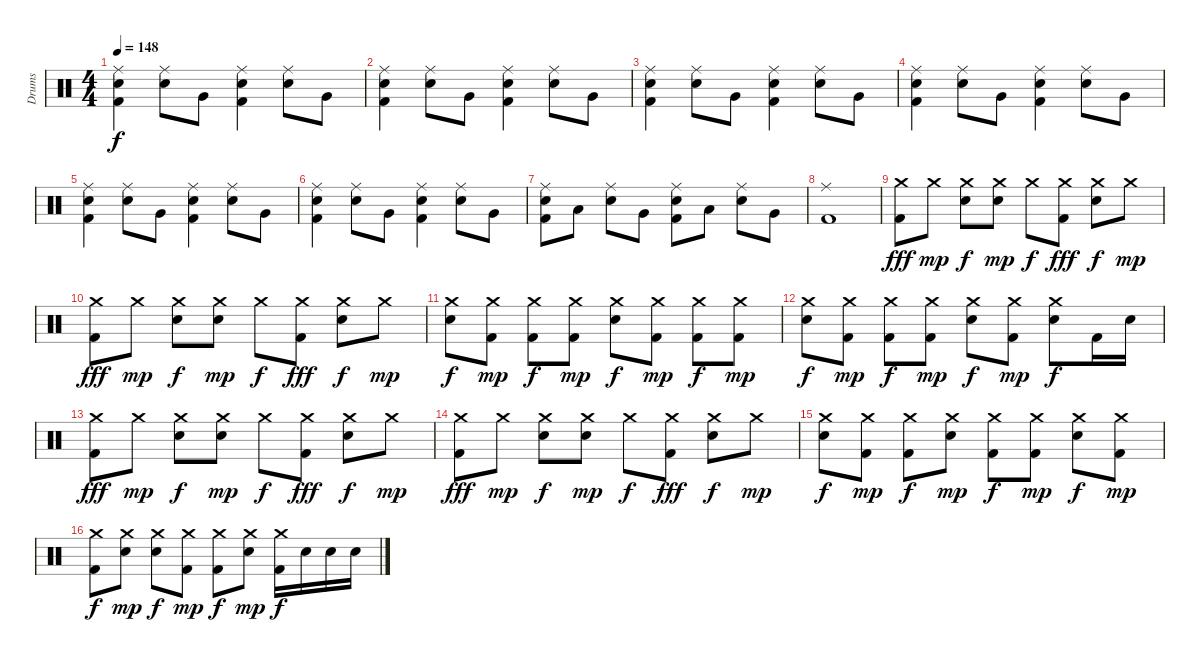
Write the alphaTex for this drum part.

\track ("Drums" "Drums") {instrument percussion}
\staff {score}
\articulation defaults
\ts (4 4)
\tempo 148
\clef neutral
\ks c
("Ride (middle)" "Snare (hit) 2" "Kick (hit) 2").4{dy f} ("Ride (middle)" "Snare (hit) 2").8 "Very Low Tom (hit)".8 ("Ride (middle)" "Snare (hit) 2" "Kick (hit) 2").4 ("Ride (middle)" "Snare (hit) 2").8 "Very Low Tom (hit)".8 |
("Ride (middle)" "Snare (hit) 2" "Kick (hit) 2").4 ("Ride (middle)" "Snare (hit) 2").8 "Very Low Tom (hit)".8 ("Ride (middle)" "Snare (hit) 2" "Kick (hit) 2").4 ("Ride (middle)" "Snare (hit) 2").8 "Very Low Tom (hit)".8 |
("Ride (middle)" "Snare (hit) 2" "Kick (hit) 2").4 ("Ride (middle)" "Snare (hit) 2").8 "Very Low Tom (hit)".8 ("Ride (middle)" "Snare (hit) 2" "Kick (hit) 2").4 ("Ride (middle)" "Snare (hit) 2").8 "Very Low Tom (hit)".8 |
("Ride (middle)" "Snare (hit) 2" "Kick (hit) 2").4 ("Ride (middle)" "Snare (hit) 2").8 "Very Low Tom (hit)".8 ("Ride (middle)" "Snare (hit) 2" "Kick (hit) 2").4 ("Ride (middle)" "Snare (hit) 2").8 "Very Low Tom (hit)".8 |
("Ride (middle)" "Snare (hit) 2" "Kick (hit) 2").4 ("Ride (middle)" "Snare (hit) 2").8 "Very Low Tom (hit)".8 ("Ride (middle)" "Snare (hit) 2" "Kick (hit) 2").4 ("Ride (middle)" "Snare (hit) 2").8 "Very Low Tom (hit)".8 |
("Ride (middle)" "Snare (hit) 2" "Kick (hit) 2").4 ("Ride (middle)" "Snare (hit) 2").8 "Very Low Tom (hit)".8 ("Ride (middle)" "Snare (hit) 2" "Kick (hit) 2").4 ("Ride (middle)" "Snare (hit) 2").8 "Very Low Tom (hit)".8 |
("Ride (middle)" "Snare (hit) 2" "Kick (hit) 2").8 "Low Tom (hit)".8 ("Ride (middle)" "Snare (hit) 2").8 "Very Low Tom (hit)".8 ("Ride (middle)" "Snare (hit) 2" "Kick (hit) 2").8 "Low Tom (hit)".8 ("Ride (middle)" "Snare (hit) 2").8 "Very Low Tom (hit)".8 |
("Ride (middle)" "Kick (hit) 2").1 |
("Crash medium (hit)" "Kick (hit) 2").8{dy fff} "Crash medium (hit)".8{dy mp} ("Crash medium (hit)" "Snare (hit) 2").8{dy f} ("Crash medium (hit)" "Snare (hit) 2").8{dy mp} "Crash medium (hit)".8{dy f} ("Crash medium (hit)" "Kick (hit) 2").8{dy fff} ("Crash medium (hit)" "Snare (hit) 2").8{dy f} "Crash medium (hit)".8{dy mp} |
("Crash medium (hit)" "Kick (hit) 2").8{dy fff} "Crash medium (hit)".8{dy mp} ("Crash medium (hit)" "Snare (hit) 2").8{dy f} ("Crash medium (hit)" "Snare (hit) 2").8{dy mp} "Crash medium (hit)".8{dy f} ("Crash medium (hit)" "Kick (hit) 2").8{dy fff} ("Crash medium (hit)" "Snare (hit) 2").8{dy f} "Crash medium (hit)".8{dy mp} |
("Crash medium (hit)" "Snare (hit) 2").8{dy f} ("Crash medium (hit)" "Kick (hit) 2").8{dy mp} ("Crash medium (hit)" "Kick (hit) 2").8{dy f} ("Crash medium (hit)" "Kick (hit) 2").8{dy mp} ("Crash medium (hit)" "Snare (hit) 2").8{dy f} ("Crash medium (hit)" "Kick (hit) 2").8{dy mp} ("Crash medium (hit)" "Kick (hit) 2").8{dy f} ("Crash medium (hit)" "Kick (hit) 2").8{dy mp} |
("Crash medium (hit)" "Snare (hit) 2").8{dy f} ("Crash medium (hit)" "Kick (hit) 2").8{dy mp} ("Crash medium (hit)" "Kick (hit) 2").8{dy f} ("Crash medium (hit)" "Kick (hit) 2").8{dy mp} ("Crash medium (hit)" "Snare (hit) 2").8{dy f} ("Crash medium (hit)" "Kick (hit) 2").8{dy mp} ("Crash medium (hit)" "Snare (hit) 2").8{dy f} "Kick (hit) 2".16 "Snare (hit) 2".16 |
("Crash medium (hit)" "Kick (hit) 2").8{dy fff} "Crash medium (hit)".8{dy mp} ("Crash medium (hit)" "Snare (hit) 2").8{dy f} ("Crash medium (hit)" "Snare (hit) 2").8{dy mp} "Crash medium (hit)".8{dy f} ("Crash medium (hit)" "Kick (hit) 2").8{dy fff} ("Crash medium (hit)" "Snare (hit) 2").8{dy f} "Crash medium (hit)".8{dy mp} |
("Crash medium (hit)" "Kick (hit) 2").8{dy fff} "Crash medium (hit)".8{dy mp} ("Crash medium (hit)" "Snare (hit) 2").8{dy f} ("Crash medium (hit)" "Snare (hit) 2").8{dy mp} "Crash medium (hit)".8{dy f} ("Crash medium (hit)" "Kick (hit) 2").8{dy fff} ("Crash medium (hit)" "Snare (hit) 2").8{dy f} "Crash medium (hit)".8{dy mp} |
("Crash medium (hit)" "Snare (hit) 2").8{dy f} ("Crash medium (hit)" "Kick (hit) 2").8{dy mp} ("Crash medium (hit)" "Kick (hit) 2").8{dy f} ("Crash medium (hit)" "Snare (hit) 2").8{dy mp} ("Crash medium (hit)" "Kick (hit) 2").8{dy f} ("Crash medium (hit)" "Kick (hit) 2").8{dy mp} ("Crash medium (hit)" "Snare (hit) 2").8{dy f} ("Crash medium (hit)" "Kick (hit) 2").8{dy mp} |
("Crash medium (hit)" "Kick (hit) 2").8{dy f} ("Crash medium (hit)" "Snare (hit) 2").8{dy mp} ("Crash medium (hit)" "Snare (hit) 2").8{dy f} ("Crash medium (hit)" "Kick (hit) 2").8{dy mp} ("Crash medium (hit)" "Kick (hit) 2").8{dy f} ("Crash medium (hit)" "Snare (hit) 2").8{dy mp} ("Crash medium (hit)" "Kick (hit) 2").16{dy f} "Snare (hit) 2".16 "Snare (hit) 2".16 "Snare (hit) 2".16
